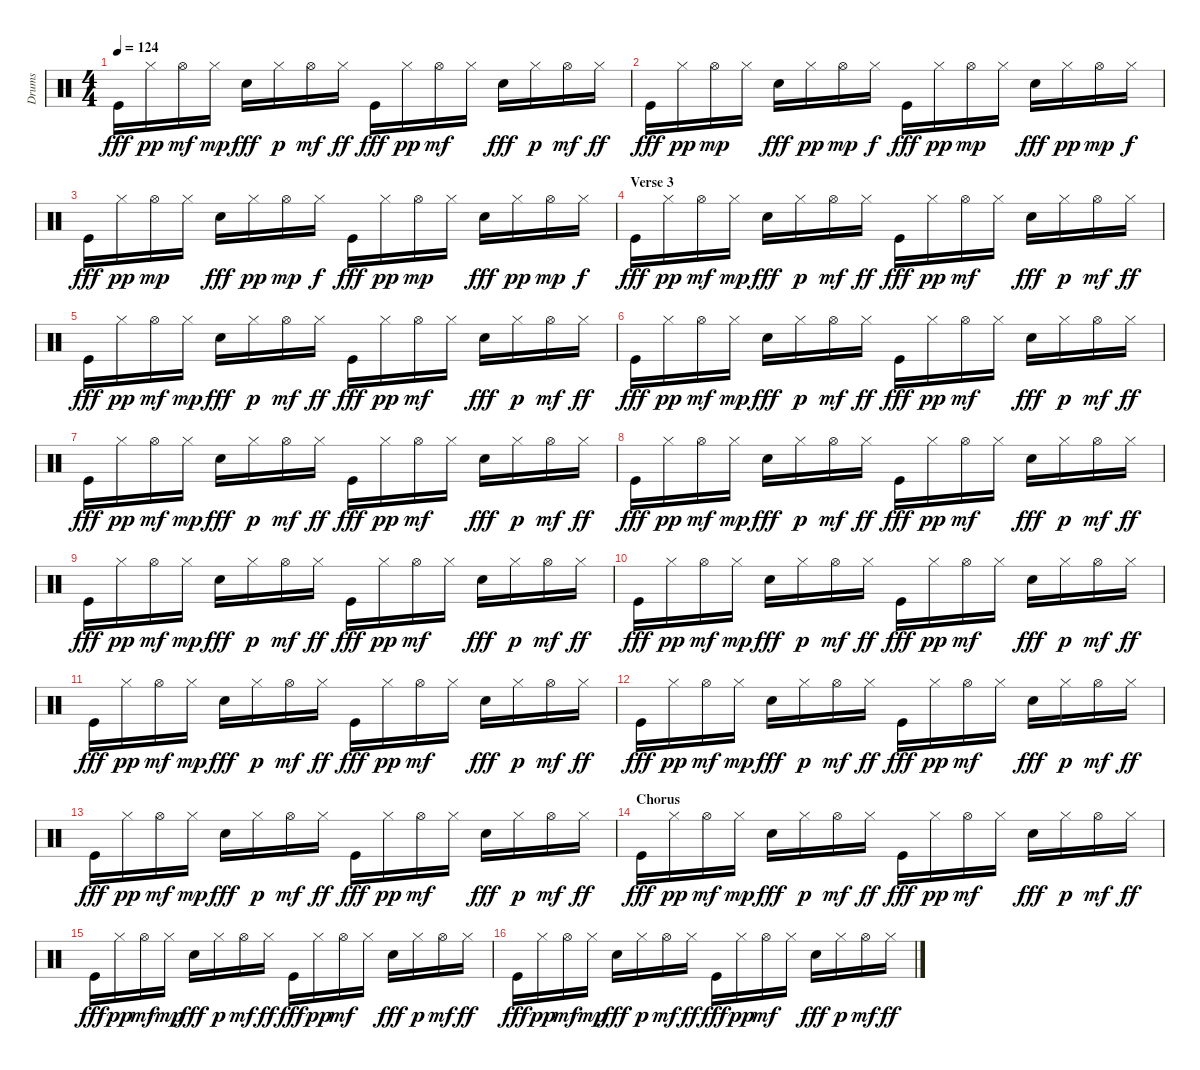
\track ("Drums" "Drums") {instrument percussion}
\staff {score}
\articulation defaults
\ts (4 4)
\tempo 124
\clef neutral
\ks c "Kick (hit)".16{dy fff} "Hi-Hat (closed)".16{dy pp} "Hi-Hat (open)".16{dy mf} "Hi-Hat (closed)".16{dy mp} "Electric Snare (hit)".16{dy fff} "Hi-Hat (closed)".16{dy p} "Hi-Hat (open)".16{dy mf} "Hi-Hat (closed)".16{dy ff} "Kick (hit)".16{dy fff} "Hi-Hat (closed)".16{dy pp} "Hi-Hat (open)".16{dy mf} "Hi-Hat (closed)".16 "Electric Snare (hit)".16{dy fff} "Hi-Hat (closed)".16{dy p} "Hi-Hat (open)".16{dy mf} "Hi-Hat (closed)".16{dy ff}
|
"Kick (hit)".16{dy fff} "Hi-Hat (closed)".16{dy pp} "Hi-Hat (open)".16{dy mp} "Hi-Hat (closed)".16 "Electric Snare (hit)".16{dy fff} "Hi-Hat (closed)".16{dy pp} "Hi-Hat (open)".16{dy mp} "Hi-Hat (closed)".16{dy f} "Kick (hit)".16{dy fff} "Hi-Hat (closed)".16{dy pp} "Hi-Hat (open)".16{dy mp} "Hi-Hat (closed)".16 "Electric Snare (hit)".16{dy fff} "Hi-Hat (closed)".16{dy pp} "Hi-Hat (open)".16{dy mp} "Hi-Hat (closed)".16{dy f} |
"Kick (hit)".16{dy fff} "Hi-Hat (closed)".16{dy pp} "Hi-Hat (open)".16{dy mp} "Hi-Hat (closed)".16 "Electric Snare (hit)".16{dy fff} "Hi-Hat (closed)".16{dy pp} "Hi-Hat (open)".16{dy mp} "Hi-Hat (closed)".16{dy f} "Kick (hit)".16{dy fff} "Hi-Hat (closed)".16{dy pp} "Hi-Hat (open)".16{dy mp} "Hi-Hat (closed)".16 "Electric Snare (hit)".16{dy fff} "Hi-Hat (closed)".16{dy pp} "Hi-Hat (open)".16{dy mp} "Hi-Hat (closed)".16{dy f} |
\section ("" "Verse 3")
"Kick (hit)".16{dy fff} "Hi-Hat (closed)".16{dy pp} "Hi-Hat (open)".16{dy mf} "Hi-Hat (closed)".16{dy mp} "Electric Snare (hit)".16{dy fff} "Hi-Hat (closed)".16{dy p} "Hi-Hat (open)".16{dy mf} "Hi-Hat (closed)".16{dy ff} "Kick (hit)".16{dy fff} "Hi-Hat (closed)".16{dy pp} "Hi-Hat (open)".16{dy mf} "Hi-Hat (closed)".16 "Electric Snare (hit)".16{dy fff} "Hi-Hat (closed)".16{dy p} "Hi-Hat (open)".16{dy mf} "Hi-Hat (closed)".16{dy ff} |
"Kick (hit)".16{dy fff} "Hi-Hat (closed)".16{dy pp} "Hi-Hat (open)".16{dy mf} "Hi-Hat (closed)".16{dy mp} "Electric Snare (hit)".16{dy fff} "Hi-Hat (closed)".16{dy p} "Hi-Hat (open)".16{dy mf} "Hi-Hat (closed)".16{dy ff} "Kick (hit)".16{dy fff} "Hi-Hat (closed)".16{dy pp} "Hi-Hat (open)".16{dy mf} "Hi-Hat (closed)".16 "Electric Snare (hit)".16{dy fff} "Hi-Hat (closed)".16{dy p} "Hi-Hat (open)".16{dy mf} "Hi-Hat (closed)".16{dy ff} |
"Kick (hit)".16{dy fff} "Hi-Hat (closed)".16{dy pp} "Hi-Hat (open)".16{dy mf} "Hi-Hat (closed)".16{dy mp} "Electric Snare (hit)".16{dy fff} "Hi-Hat (closed)".16{dy p} "Hi-Hat (open)".16{dy mf} "Hi-Hat (closed)".16{dy ff} "Kick (hit)".16{dy fff} "Hi-Hat (closed)".16{dy pp} "Hi-Hat (open)".16{dy mf} "Hi-Hat (closed)".16 "Electric Snare (hit)".16{dy fff} "Hi-Hat (closed)".16{dy p} "Hi-Hat (open)".16{dy mf} "Hi-Hat (closed)".16{dy ff} |
"Kick (hit)".16{dy fff} "Hi-Hat (closed)".16{dy pp} "Hi-Hat (open)".16{dy mf} "Hi-Hat (closed)".16{dy mp} "Electric Snare (hit)".16{dy fff} "Hi-Hat (closed)".16{dy p} "Hi-Hat (open)".16{dy mf} "Hi-Hat (closed)".16{dy ff} "Kick (hit)".16{dy fff} "Hi-Hat (closed)".16{dy pp} "Hi-Hat (open)".16{dy mf} "Hi-Hat (closed)".16 "Electric Snare (hit)".16{dy fff} "Hi-Hat (closed)".16{dy p} "Hi-Hat (open)".16{dy mf} "Hi-Hat (closed)".16{dy ff} |
"Kick (hit)".16{dy fff} "Hi-Hat (closed)".16{dy pp} "Hi-Hat (open)".16{dy mf} "Hi-Hat (closed)".16{dy mp} "Electric Snare (hit)".16{dy fff} "Hi-Hat (closed)".16{dy p} "Hi-Hat (open)".16{dy mf} "Hi-Hat (closed)".16{dy ff} "Kick (hit)".16{dy fff} "Hi-Hat (closed)".16{dy pp} "Hi-Hat (open)".16{dy mf} "Hi-Hat (closed)".16 "Electric Snare (hit)".16{dy fff} "Hi-Hat (closed)".16{dy p} "Hi-Hat (open)".16{dy mf} "Hi-Hat (closed)".16{dy ff} |
"Kick (hit)".16{dy fff} "Hi-Hat (closed)".16{dy pp} "Hi-Hat (open)".16{dy mf} "Hi-Hat (closed)".16{dy mp} "Electric Snare (hit)".16{dy fff} "Hi-Hat (closed)".16{dy p} "Hi-Hat (open)".16{dy mf} "Hi-Hat (closed)".16{dy ff} "Kick (hit)".16{dy fff} "Hi-Hat (closed)".16{dy pp} "Hi-Hat (open)".16{dy mf} "Hi-Hat (closed)".16 "Electric Snare (hit)".16{dy fff} "Hi-Hat (closed)".16{dy p} "Hi-Hat (open)".16{dy mf} "Hi-Hat (closed)".16{dy ff} |
"Kick (hit)".16{dy fff} "Hi-Hat (closed)".16{dy pp} "Hi-Hat (open)".16{dy mf} "Hi-Hat (closed)".16{dy mp} "Electric Snare (hit)".16{dy fff} "Hi-Hat (closed)".16{dy p} "Hi-Hat (open)".16{dy mf} "Hi-Hat (closed)".16{dy ff} "Kick (hit)".16{dy fff} "Hi-Hat (closed)".16{dy pp} "Hi-Hat (open)".16{dy mf} "Hi-Hat (closed)".16 "Electric Snare (hit)".16{dy fff} "Hi-Hat (closed)".16{dy p} "Hi-Hat (open)".16{dy mf} "Hi-Hat (closed)".16{dy ff} |
"Kick (hit)".16{dy fff} "Hi-Hat (closed)".16{dy pp} "Hi-Hat (open)".16{dy mf} "Hi-Hat (closed)".16{dy mp} "Electric Snare (hit)".16{dy fff} "Hi-Hat (closed)".16{dy p} "Hi-Hat (open)".16{dy mf} "Hi-Hat (closed)".16{dy ff} "Kick (hit)".16{dy fff} "Hi-Hat (closed)".16{dy pp} "Hi-Hat (open)".16{dy mf} "Hi-Hat (closed)".16 "Electric Snare (hit)".16{dy fff} "Hi-Hat (closed)".16{dy p} "Hi-Hat (open)".16{dy mf} "Hi-Hat (closed)".16{dy ff} |
"Kick (hit)".16{dy fff} "Hi-Hat (closed)".16{dy pp} "Hi-Hat (open)".16{dy mf} "Hi-Hat (closed)".16{dy mp} "Electric Snare (hit)".16{dy fff} "Hi-Hat (closed)".16{dy p} "Hi-Hat (open)".16{dy mf} "Hi-Hat (closed)".16{dy ff} "Kick (hit)".16{dy fff} "Hi-Hat (closed)".16{dy pp} "Hi-Hat (open)".16{dy mf} "Hi-Hat (closed)".16 "Electric Snare (hit)".16{dy fff} "Hi-Hat (closed)".16{dy p} "Hi-Hat (open)".16{dy mf} "Hi-Hat (closed)".16{dy ff} |
"Kick (hit)".16{dy fff} "Hi-Hat (closed)".16{dy pp} "Hi-Hat (open)".16{dy mf} "Hi-Hat (closed)".16{dy mp} "Electric Snare (hit)".16{dy fff} "Hi-Hat (closed)".16{dy p} "Hi-Hat (open)".16{dy mf} "Hi-Hat (closed)".16{dy ff} "Kick (hit)".16{dy fff} "Hi-Hat (closed)".16{dy pp} "Hi-Hat (open)".16{dy mf} "Hi-Hat (closed)".16 "Electric Snare (hit)".16{dy fff} "Hi-Hat (closed)".16{dy p} "Hi-Hat (open)".16{dy mf} "Hi-Hat (closed)".16{dy ff} |
\section ("" "Chorus")
"Kick (hit)".16{dy fff} "Hi-Hat (closed)".16{dy pp} "Hi-Hat (open)".16{dy mf} "Hi-Hat (closed)".16{dy mp} "Electric Snare (hit)".16{dy fff} "Hi-Hat (closed)".16{dy p} "Hi-Hat (open)".16{dy mf} "Hi-Hat (closed)".16{dy ff} "Kick (hit)".16{dy fff} "Hi-Hat (closed)".16{dy pp} "Hi-Hat (open)".16{dy mf} "Hi-Hat (closed)".16 "Electric Snare (hit)".16{dy fff} "Hi-Hat (closed)".16{dy p} "Hi-Hat (open)".16{dy mf} "Hi-Hat (closed)".16{dy ff} |
"Kick (hit)".16{dy fff} "Hi-Hat (closed)".16{dy pp} "Hi-Hat (open)".16{dy mf} "Hi-Hat (closed)".16{dy mp} "Electric Snare (hit)".16{dy fff} "Hi-Hat (closed)".16{dy p} "Hi-Hat (open)".16{dy mf} "Hi-Hat (closed)".16{dy ff} "Kick (hit)".16{dy fff} "Hi-Hat (closed)".16{dy pp} "Hi-Hat (open)".16{dy mf} "Hi-Hat (closed)".16 "Electric Snare (hit)".16{dy fff} "Hi-Hat (closed)".16{dy p} "Hi-Hat (open)".16{dy mf} "Hi-Hat (closed)".16{dy ff} |
"Kick (hit)".16{dy fff} "Hi-Hat (closed)".16{dy pp} "Hi-Hat (open)".16{dy mf} "Hi-Hat (closed)".16{dy mp} "Electric Snare (hit)".16{dy fff} "Hi-Hat (closed)".16{dy p} "Hi-Hat (open)".16{dy mf} "Hi-Hat (closed)".16{dy ff} "Kick (hit)".16{dy fff} "Hi-Hat (closed)".16{dy pp} "Hi-Hat (open)".16{dy mf} "Hi-Hat (closed)".16 "Electric Snare (hit)".16{dy fff} "Hi-Hat (closed)".16{dy p} "Hi-Hat (open)".16{dy mf} "Hi-Hat (closed)".16{dy ff}
